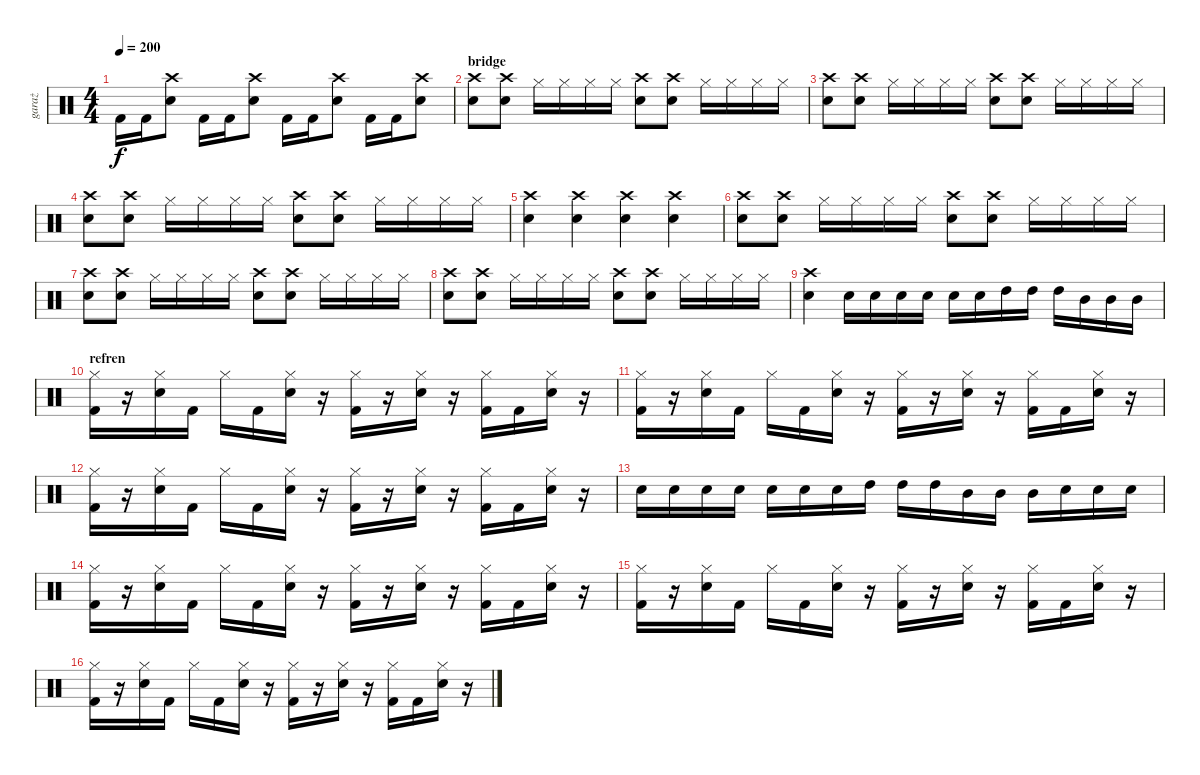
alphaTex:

\track ("garaż" "garaż") {instrument percussion}
\staff {score}
\articulation defaults
\ts (4 4)
\tempo 200
\clef neutral
\ks c "Kick (hit) 2".16{dy f} "Kick (hit) 2".16
("Crash high (hit)" "Snare (hit) 2").8 "Kick (hit) 2".16 "Kick (hit) 2".16 ("Crash high (hit)" "Snare (hit) 2").8 "Kick (hit) 2".16 "Kick (hit) 2".16 ("Crash high (hit)" "Snare (hit) 2").8 "Kick (hit) 2".16 "Kick (hit) 2".16 ("Crash high (hit)" "Snare (hit) 2").8 |
\section ("" "bridge")
("Crash high (hit)" "Snare (hit) 2").8 ("Crash high (hit)" "Snare (hit) 2").8 "Hi-Hat (closed)".16 "Hi-Hat (closed)".16 "Hi-Hat (closed)".16 "Hi-Hat (closed)".16 ("Crash high (hit)" "Snare (hit) 2").8 ("Crash high (hit)" "Snare (hit) 2").8 "Hi-Hat (closed)".16 "Hi-Hat (closed)".16 "Hi-Hat (closed)".16 "Hi-Hat (closed)".16 |
("Crash high (hit)" "Snare (hit) 2").8 ("Crash high (hit)" "Snare (hit) 2").8 "Hi-Hat (closed)".16 "Hi-Hat (closed)".16 "Hi-Hat (closed)".16 "Hi-Hat (closed)".16 ("Crash high (hit)" "Snare (hit) 2").8 ("Crash high (hit)" "Snare (hit) 2").8 "Hi-Hat (closed)".16 "Hi-Hat (closed)".16 "Hi-Hat (closed)".16 "Hi-Hat (closed)".16 |
("Crash high (hit)" "Snare (hit) 2").8 ("Crash high (hit)" "Snare (hit) 2").8 "Hi-Hat (closed)".16 "Hi-Hat (closed)".16 "Hi-Hat (closed)".16 "Hi-Hat (closed)".16 ("Crash high (hit)" "Snare (hit) 2").8 ("Crash high (hit)" "Snare (hit) 2").8 "Hi-Hat (closed)".16 "Hi-Hat (closed)".16 "Hi-Hat (closed)".16 "Hi-Hat (closed)".16 |
("Crash high (hit)" "Snare (hit) 2").4 ("Crash high (hit)" "Snare (hit) 2").4 ("Crash high (hit)" "Snare (hit) 2").4 ("Crash high (hit)" "Snare (hit) 2").4 |
("Crash high (hit)" "Snare (hit) 2").8 ("Crash high (hit)" "Snare (hit) 2").8 "Hi-Hat (closed)".16 "Hi-Hat (closed)".16 "Hi-Hat (closed)".16 "Hi-Hat (closed)".16 ("Crash high (hit)" "Snare (hit) 2").8 ("Crash high (hit)" "Snare (hit) 2").8 "Hi-Hat (closed)".16 "Hi-Hat (closed)".16 "Hi-Hat (closed)".16 "Hi-Hat (closed)".16 |
("Crash high (hit)" "Snare (hit) 2").8 ("Crash high (hit)" "Snare (hit) 2").8 "Hi-Hat (closed)".16 "Hi-Hat (closed)".16 "Hi-Hat (closed)".16 "Hi-Hat (closed)".16 ("Crash high (hit)" "Snare (hit) 2").8 ("Crash high (hit)" "Snare (hit) 2").8 "Hi-Hat (closed)".16 "Hi-Hat (closed)".16 "Hi-Hat (closed)".16 "Hi-Hat (closed)".16 |
("Crash high (hit)" "Snare (hit) 2").8 ("Crash high (hit)" "Snare (hit) 2").8 "Hi-Hat (closed)".16 "Hi-Hat (closed)".16 "Hi-Hat (closed)".16 "Hi-Hat (closed)".16 ("Crash high (hit)" "Snare (hit) 2").8 ("Crash high (hit)" "Snare (hit) 2").8 "Hi-Hat (closed)".16 "Hi-Hat (closed)".16 "Hi-Hat (closed)".16 "Hi-Hat (closed)".16 |
("Crash high (hit)" "Snare (hit) 2").4 "Snare (hit) 2".16 "Snare (hit) 2".16 "Snare (hit) 2".16 "Snare (hit) 2".16 "Snare (hit) 2".16 "Snare (hit) 2".16 "High Tom (hit)".16 "High Tom (hit)".16 "High Tom (hit)".16 "Mid Tom (hit)".16 "Mid Tom (hit)".16 "Mid Tom (hit)".16 |
\section ("" "refren")
("Hi-Hat (closed)" "Kick (hit) 2").16 r.16 ("Hi-Hat (closed)" "Snare (hit) 2").16 "Kick (hit) 2".16 "Hi-Hat (closed)".16 "Kick (hit) 2".16 ("Hi-Hat (closed)" "Snare (hit) 2").16 r.16 ("Hi-Hat (closed)" "Kick (hit) 2").16 r.16 ("Hi-Hat (closed)" "Snare (hit) 2").16 r.16 ("Hi-Hat (closed)" "Kick (hit) 2").16 "Kick (hit) 2".16 ("Hi-Hat (closed)" "Snare (hit) 2").16 r.16 |
("Hi-Hat (closed)" "Kick (hit) 2").16 r.16 ("Hi-Hat (closed)" "Snare (hit) 2").16 "Kick (hit) 2".16 "Hi-Hat (closed)".16 "Kick (hit) 2".16 ("Hi-Hat (closed)" "Snare (hit) 2").16 r.16 ("Hi-Hat (closed)" "Kick (hit) 2").16 r.16 ("Hi-Hat (closed)" "Snare (hit) 2").16 r.16 ("Hi-Hat (closed)" "Kick (hit) 2").16 "Kick (hit) 2".16 ("Hi-Hat (closed)" "Snare (hit) 2").16 r.16 |
("Hi-Hat (closed)" "Kick (hit) 2").16 r.16 ("Hi-Hat (closed)" "Snare (hit) 2").16 "Kick (hit) 2".16 "Hi-Hat (closed)".16 "Kick (hit) 2".16 ("Hi-Hat (closed)" "Snare (hit) 2").16 r.16 ("Hi-Hat (closed)" "Kick (hit) 2").16 r.16 ("Hi-Hat (closed)" "Snare (hit) 2").16 r.16 ("Hi-Hat (closed)" "Kick (hit) 2").16 "Kick (hit) 2".16 ("Hi-Hat (closed)" "Snare (hit) 2").16 r.16 |
"Snare (hit) 2".16 "Snare (hit) 2".16 "Snare (hit) 2".16 "Snare (hit) 2".16 "Snare (hit) 2".16 "Snare (hit) 2".16 "Snare (hit) 2".16 "High Tom (hit)".16 "High Tom (hit)".16 "High Tom (hit)".16 "Mid Tom (hit)".16 "Mid Tom (hit)".16 "Mid Tom (hit)".16 "Snare (hit) 2".16 "Snare (hit) 2".16 "Snare (hit) 2".16 |
("Hi-Hat (closed)" "Kick (hit) 2").16 r.16 ("Hi-Hat (closed)" "Snare (hit) 2").16 "Kick (hit) 2".16 "Hi-Hat (closed)".16 "Kick (hit) 2".16 ("Hi-Hat (closed)" "Snare (hit) 2").16 r.16 ("Hi-Hat (closed)" "Kick (hit) 2").16 r.16 ("Hi-Hat (closed)" "Snare (hit) 2").16 r.16 ("Hi-Hat (closed)" "Kick (hit) 2").16 "Kick (hit) 2".16 ("Hi-Hat (closed)" "Snare (hit) 2").16 r.16 |
("Hi-Hat (closed)" "Kick (hit) 2").16 r.16 ("Hi-Hat (closed)" "Snare (hit) 2").16 "Kick (hit) 2".16 "Hi-Hat (closed)".16 "Kick (hit) 2".16 ("Hi-Hat (closed)" "Snare (hit) 2").16 r.16 ("Hi-Hat (closed)" "Kick (hit) 2").16 r.16 ("Hi-Hat (closed)" "Snare (hit) 2").16 r.16 ("Hi-Hat (closed)" "Kick (hit) 2").16 "Kick (hit) 2".16 ("Hi-Hat (closed)" "Snare (hit) 2").16 r.16 |
("Hi-Hat (closed)" "Kick (hit) 2").16 r.16 ("Hi-Hat (closed)" "Snare (hit) 2").16 "Kick (hit) 2".16 "Hi-Hat (closed)".16 "Kick (hit) 2".16 ("Hi-Hat (closed)" "Snare (hit) 2").16 r.16 ("Hi-Hat (closed)" "Kick (hit) 2").16 r.16 ("Hi-Hat (closed)" "Snare (hit) 2").16 r.16 ("Hi-Hat (closed)" "Kick (hit) 2").16 "Kick (hit) 2".16 ("Hi-Hat (closed)" "Snare (hit) 2").16 r.16
